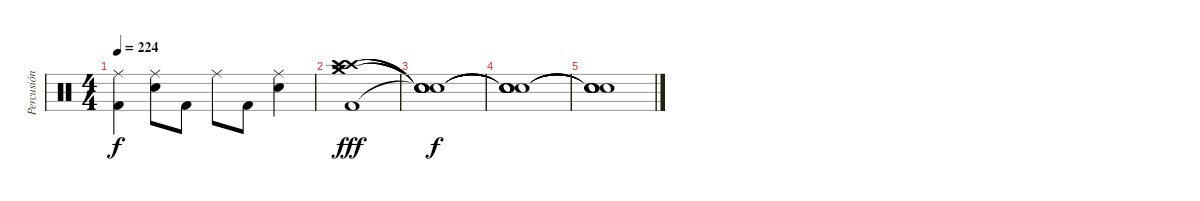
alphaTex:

\track ("Percusión" "Percusión") {instrument percussion}
\staff {score}
\articulation defaults
\ts (4 4)
\tempo 224
\clef neutral
\ks c
("Ride (middle)" "Kick (hit) 2").4{dy f} ("Ride (middle)" "Electric Snare (hit)").8 "Kick (hit) 2".8 "Ride (middle)".8 "Kick (hit) 2".8 ("Ride (middle)" "Electric Snare (hit)").4 |
("Crash medium (hit)" "Crash high (hit)" "Splash (hit)" "Crash medium (hit)" "Crash high (hit)" "Kick (hit) 2").1{dy fff} |
("Snare (hit)"{t} "Snare (hit)"{t} "Snare (hit)"{t} "Snare (hit)"{t} "Snare (hit)"{t} "Snare (hit)"{t}).1{dy f} |
("Snare (hit)"{t} "Snare (hit)"{t} "Snare (hit)"{t} "Snare (hit)"{t} "Snare (hit)"{t} "Snare (hit)"{t}).1 |
("Snare (hit)"{t} "Snare (hit)"{t} "Snare (hit)"{t} "Snare (hit)"{t} "Snare (hit)"{t} "Snare (hit)"{t}).1
